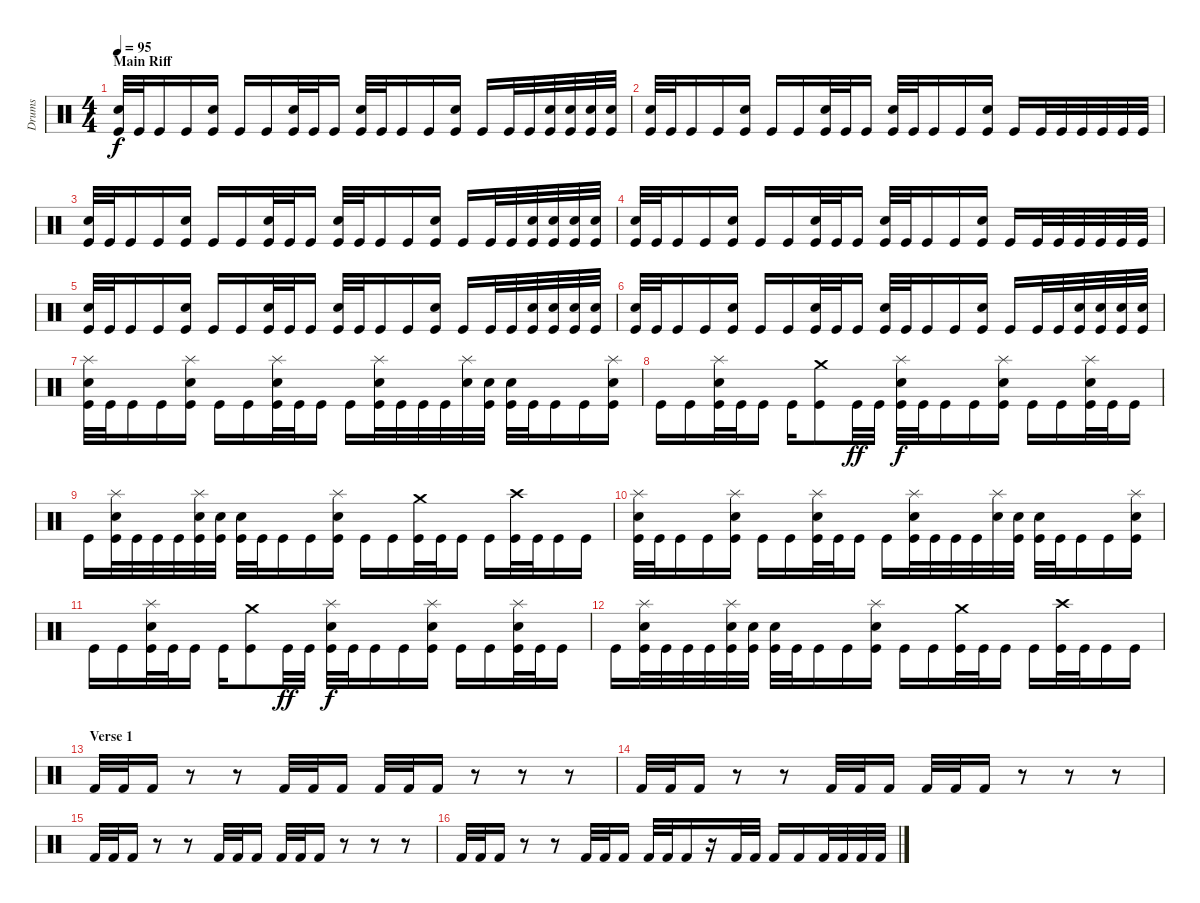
\track ("Drums" "Drums") {instrument percussion}
\staff {score}
\articulation defaults
\ts (4 4)
\section ("" "Main Riff")
\tempo 95
\clef neutral
\ks c
("Electric Snare (hit)" "Kick (hit)").32{dy f} "Kick (hit)".32 "Kick (hit)".16 "Kick (hit)".16 ("Electric Snare (hit)" "Kick (hit)").16 "Kick (hit)".16 "Kick (hit)".16 ("Electric Snare (hit)" "Kick (hit)").32 "Kick (hit)".32 "Kick (hit)".16 ("Electric Snare (hit)" "Kick (hit)").32 "Kick (hit)".32 "Kick (hit)".16 "Kick (hit)".16 ("Electric Snare (hit)" "Kick (hit)").16 "Kick (hit)".16 "Kick (hit)".32 "Kick (hit)".32 ("Electric Snare (hit)" "Kick (hit)").32 ("Electric Snare (hit)" "Kick (hit)").32 ("Electric Snare (hit)" "Kick (hit)").32 ("Electric Snare (hit)" "Kick (hit)").32 |
("Electric Snare (hit)" "Kick (hit)").32 "Kick (hit)".32 "Kick (hit)".16 "Kick (hit)".16 ("Electric Snare (hit)" "Kick (hit)").16 "Kick (hit)".16 "Kick (hit)".16 ("Electric Snare (hit)" "Kick (hit)").32 "Kick (hit)".32 "Kick (hit)".16 ("Electric Snare (hit)" "Kick (hit)").32 "Kick (hit)".32 "Kick (hit)".16 "Kick (hit)".16 ("Electric Snare (hit)" "Kick (hit)").16 "Kick (hit)".16 "Kick (hit)".32 "Kick (hit)".32 "Kick (hit)".32 "Kick (hit)".32 "Kick (hit)".32 "Kick (hit)".32 |
("Electric Snare (hit)" "Kick (hit)").32 "Kick (hit)".32 "Kick (hit)".16 "Kick (hit)".16 ("Electric Snare (hit)" "Kick (hit)").16 "Kick (hit)".16 "Kick (hit)".16 ("Electric Snare (hit)" "Kick (hit)").32 "Kick (hit)".32 "Kick (hit)".16 ("Electric Snare (hit)" "Kick (hit)").32 "Kick (hit)".32 "Kick (hit)".16 "Kick (hit)".16 ("Electric Snare (hit)" "Kick (hit)").16 "Kick (hit)".16 "Kick (hit)".32 "Kick (hit)".32 ("Electric Snare (hit)" "Kick (hit)").32 ("Electric Snare (hit)" "Kick (hit)").32 ("Electric Snare (hit)" "Kick (hit)").32 ("Electric Snare (hit)" "Kick (hit)").32 |
("Electric Snare (hit)" "Kick (hit)").32 "Kick (hit)".32 "Kick (hit)".16 "Kick (hit)".16 ("Electric Snare (hit)" "Kick (hit)").16 "Kick (hit)".16 "Kick (hit)".16 ("Electric Snare (hit)" "Kick (hit)").32 "Kick (hit)".32 "Kick (hit)".16 ("Electric Snare (hit)" "Kick (hit)").32 "Kick (hit)".32 "Kick (hit)".16 "Kick (hit)".16 ("Electric Snare (hit)" "Kick (hit)").16 "Kick (hit)".16 "Kick (hit)".32 "Kick (hit)".32 "Kick (hit)".32 "Kick (hit)".32 "Kick (hit)".32 "Kick (hit)".32 |
("Electric Snare (hit)" "Kick (hit)").32 "Kick (hit)".32 "Kick (hit)".16 "Kick (hit)".16 ("Electric Snare (hit)" "Kick (hit)").16 "Kick (hit)".16 "Kick (hit)".16 ("Electric Snare (hit)" "Kick (hit)").32 "Kick (hit)".32 "Kick (hit)".16 ("Electric Snare (hit)" "Kick (hit)").32 "Kick (hit)".32 "Kick (hit)".16 "Kick (hit)".16 ("Electric Snare (hit)" "Kick (hit)").16 "Kick (hit)".16 "Kick (hit)".32 "Kick (hit)".32 ("Electric Snare (hit)" "Kick (hit)").32 ("Electric Snare (hit)" "Kick (hit)").32 ("Electric Snare (hit)" "Kick (hit)").32 ("Electric Snare (hit)" "Kick (hit)").32 |
("Electric Snare (hit)" "Kick (hit)").32 "Kick (hit)".32 "Kick (hit)".16 "Kick (hit)".16 ("Electric Snare (hit)" "Kick (hit)").16 "Kick (hit)".16 "Kick (hit)".16 ("Electric Snare (hit)" "Kick (hit)").32 "Kick (hit)".32 "Kick (hit)".16 ("Electric Snare (hit)" "Kick (hit)").32 "Kick (hit)".32 "Kick (hit)".16 "Kick (hit)".16 ("Electric Snare (hit)" "Kick (hit)").16 "Kick (hit)".16 "Kick (hit)".32 "Kick (hit)".32 ("Electric Snare (hit)" "Kick (hit)").32 ("Electric Snare (hit)" "Kick (hit)").32 ("Electric Snare (hit)" "Kick (hit)").32 ("Electric Snare (hit)" "Kick (hit)").32 |
("Splash (hit)" "Electric Snare (hit)" "Kick (hit)").32 "Kick (hit)".32 "Kick (hit)".16 "Kick (hit)".16 ("Splash (hit)" "Electric Snare (hit)" "Kick (hit)").16 "Kick (hit)".16 "Kick (hit)".16 ("Splash (hit)" "Electric Snare (hit)" "Kick (hit)").32 "Kick (hit)".32 "Kick (hit)".16 "Kick (hit)".16 ("Splash (hit)" "Electric Snare (hit)" "Kick (hit)").32 "Kick (hit)".32 "Kick (hit)".32 "Kick (hit)".32 ("Splash (hit)" "Electric Snare (hit)").32 ("Electric Snare (hit)" "Kick (hit)").32 ("Electric Snare (hit)" "Kick (hit)").32 "Kick (hit)".32 "Kick (hit)".16 "Kick (hit)".16 ("Splash (hit)" "Electric Snare (hit)" "Kick (hit)").16 |
"Kick (hit)".16 "Kick (hit)".16 ("Splash (hit)" "Electric Snare (hit)" "Kick (hit)").32 "Kick (hit)".32 "Kick (hit)".16 "Kick (hit)".16 ("Crash medium (hit)" "Kick (hit)").8 "Kick (hit)".32{dy ff} "Kick (hit)".32 ("Splash (hit)" "Electric Snare (hit)" "Kick (hit)").32{dy f} "Kick (hit)".32 "Kick (hit)".16 "Kick (hit)".16 ("Splash (hit)" "Electric Snare (hit)" "Kick (hit)").16 "Kick (hit)".16 "Kick (hit)".16 ("Splash (hit)" "Electric Snare (hit)" "Kick (hit)").32 "Kick (hit)".32 "Kick (hit)".16 |
"Kick (hit)".16 ("Splash (hit)" "Electric Snare (hit)" "Kick (hit)").32 "Kick (hit)".32 "Kick (hit)".32 "Kick (hit)".32 ("Splash (hit)" "Electric Snare (hit)" "Kick (hit)").32 ("Electric Snare (hit)" "Kick (hit)").32 ("Electric Snare (hit)" "Kick (hit)").32 "Kick (hit)".32 "Kick (hit)".16 "Kick (hit)".16 ("Splash (hit)" "Electric Snare (hit)" "Kick (hit)").16 "Kick (hit)".16 "Kick (hit)".16 ("Crash medium (hit)" "Kick (hit)").32 "Kick (hit)".32 "Kick (hit)".16 "Kick (hit)".16 ("Crash high (hit)" "Kick (hit)").32 "Kick (hit)".32 "Kick (hit)".16 "Kick (hit)".16 |
("Splash (hit)" "Electric Snare (hit)" "Kick (hit)").32 "Kick (hit)".32 "Kick (hit)".16 "Kick (hit)".16 ("Splash (hit)" "Electric Snare (hit)" "Kick (hit)").16 "Kick (hit)".16 "Kick (hit)".16 ("Splash (hit)" "Electric Snare (hit)" "Kick (hit)").32 "Kick (hit)".32 "Kick (hit)".16 "Kick (hit)".16 ("Splash (hit)" "Electric Snare (hit)" "Kick (hit)").32 "Kick (hit)".32 "Kick (hit)".32 "Kick (hit)".32 ("Splash (hit)" "Electric Snare (hit)").32 ("Electric Snare (hit)" "Kick (hit)").32 ("Electric Snare (hit)" "Kick (hit)").32 "Kick (hit)".32 "Kick (hit)".16 "Kick (hit)".16 ("Splash (hit)" "Electric Snare (hit)" "Kick (hit)").16 |
"Kick (hit)".16 "Kick (hit)".16 ("Splash (hit)" "Electric Snare (hit)" "Kick (hit)").32 "Kick (hit)".32 "Kick (hit)".16 "Kick (hit)".16 ("Crash medium (hit)" "Kick (hit)").8 "Kick (hit)".32{dy ff} "Kick (hit)".32 ("Splash (hit)" "Electric Snare (hit)" "Kick (hit)").32{dy f} "Kick (hit)".32 "Kick (hit)".16 "Kick (hit)".16 ("Splash (hit)" "Electric Snare (hit)" "Kick (hit)").16 "Kick (hit)".16 "Kick (hit)".16 ("Splash (hit)" "Electric Snare (hit)" "Kick (hit)").32 "Kick (hit)".32 "Kick (hit)".16 |
"Kick (hit)".16 ("Splash (hit)" "Electric Snare (hit)" "Kick (hit)").32 "Kick (hit)".32 "Kick (hit)".32 "Kick (hit)".32 ("Splash (hit)" "Electric Snare (hit)" "Kick (hit)").32 ("Electric Snare (hit)" "Kick (hit)").32 ("Electric Snare (hit)" "Kick (hit)").32 "Kick (hit)".32 "Kick (hit)".16 "Kick (hit)".16 ("Splash (hit)" "Electric Snare (hit)" "Kick (hit)").16 "Kick (hit)".16 "Kick (hit)".16 ("Crash medium (hit)" "Kick (hit)").32 "Kick (hit)".32 "Kick (hit)".16 "Kick (hit)".16 ("Crash high (hit)" "Kick (hit)").32 "Kick (hit)".32 "Kick (hit)".16 "Kick (hit)".16 |
\section ("" "Verse 1")
"Kick (hit) 2".32 "Kick (hit) 2".32 "Kick (hit) 2".16 r.8 r.8 "Kick (hit) 2".32 "Kick (hit) 2".32 "Kick (hit) 2".16 "Kick (hit) 2".32 "Kick (hit) 2".32 "Kick (hit) 2".16 r.8 r.8 r.8 |
"Kick (hit) 2".32 "Kick (hit) 2".32 "Kick (hit) 2".16 r.8 r.8 "Kick (hit) 2".32 "Kick (hit) 2".32 "Kick (hit) 2".16 "Kick (hit) 2".32 "Kick (hit) 2".32 "Kick (hit) 2".16 r.8 r.8 r.8 |
"Kick (hit) 2".32 "Kick (hit) 2".32 "Kick (hit) 2".16 r.8 r.8 "Kick (hit) 2".32 "Kick (hit) 2".32 "Kick (hit) 2".16 "Kick (hit) 2".32 "Kick (hit) 2".32 "Kick (hit) 2".16 r.8 r.8 r.8 |
"Kick (hit) 2".32 "Kick (hit) 2".32 "Kick (hit) 2".16 r.8 r.8 "Kick (hit) 2".32 "Kick (hit) 2".32 "Kick (hit) 2".16 "Kick (hit) 2".32 "Kick (hit) 2".32 "Kick (hit) 2".16 r.16 "Kick (hit) 2".32 "Kick (hit) 2".32 "Kick (hit) 2".16 "Kick (hit) 2".16 "Kick (hit) 2".32 "Kick (hit) 2".32 "Kick (hit) 2".32 "Kick (hit) 2".32
